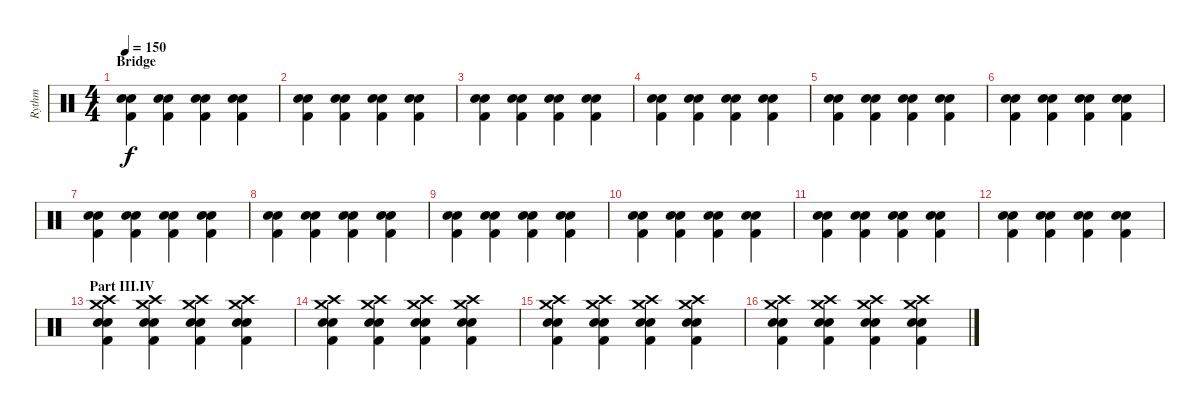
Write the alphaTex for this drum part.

\track ("Rythm" "Rythm") {instrument percussion}
\staff {score}
\articulation defaults
\ts (4 4)
\section ("" "Bridge")
\tempo 150
\clef neutral
\ks c
("Electric Snare (hit)" "Kick (hit) 2" "Snare (hit) 2").4{dy f} ("Electric Snare (hit)" "Kick (hit) 2" "Snare (hit) 2").4 ("Electric Snare (hit)" "Kick (hit) 2" "Snare (hit) 2").4 ("Electric Snare (hit)" "Kick (hit) 2" "Snare (hit) 2").4 |
("Electric Snare (hit)" "Kick (hit) 2" "Snare (hit) 2").4 ("Electric Snare (hit)" "Kick (hit) 2" "Snare (hit) 2").4 ("Electric Snare (hit)" "Kick (hit) 2" "Snare (hit) 2").4 ("Electric Snare (hit)" "Kick (hit) 2" "Snare (hit) 2").4 |
("Electric Snare (hit)" "Kick (hit) 2" "Snare (hit) 2").4 ("Electric Snare (hit)" "Kick (hit) 2" "Snare (hit) 2").4 ("Electric Snare (hit)" "Kick (hit) 2" "Snare (hit) 2").4 ("Electric Snare (hit)" "Kick (hit) 2" "Snare (hit) 2").4 |
("Electric Snare (hit)" "Kick (hit) 2" "Snare (hit) 2").4 ("Electric Snare (hit)" "Kick (hit) 2" "Snare (hit) 2").4 ("Electric Snare (hit)" "Kick (hit) 2" "Snare (hit) 2").4 ("Electric Snare (hit)" "Kick (hit) 2" "Snare (hit) 2").4 |
("Electric Snare (hit)" "Kick (hit) 2" "Snare (hit) 2").4 ("Electric Snare (hit)" "Kick (hit) 2" "Snare (hit) 2").4 ("Electric Snare (hit)" "Kick (hit) 2" "Snare (hit) 2").4 ("Electric Snare (hit)" "Kick (hit) 2" "Snare (hit) 2").4 |
("Electric Snare (hit)" "Kick (hit) 2" "Snare (hit) 2").4 ("Electric Snare (hit)" "Kick (hit) 2" "Snare (hit) 2").4 ("Electric Snare (hit)" "Kick (hit) 2" "Snare (hit) 2").4 ("Electric Snare (hit)" "Kick (hit) 2" "Snare (hit) 2").4 |
("Electric Snare (hit)" "Kick (hit) 2" "Snare (hit) 2").4 ("Electric Snare (hit)" "Kick (hit) 2" "Snare (hit) 2").4 ("Electric Snare (hit)" "Kick (hit) 2" "Snare (hit) 2").4 ("Electric Snare (hit)" "Kick (hit) 2" "Snare (hit) 2").4 |
("Electric Snare (hit)" "Kick (hit) 2" "Snare (hit) 2").4 ("Electric Snare (hit)" "Kick (hit) 2" "Snare (hit) 2").4 ("Electric Snare (hit)" "Kick (hit) 2" "Snare (hit) 2").4 ("Electric Snare (hit)" "Kick (hit) 2" "Snare (hit) 2").4 |
("Electric Snare (hit)" "Kick (hit) 2" "Snare (hit) 2").4 ("Electric Snare (hit)" "Kick (hit) 2" "Snare (hit) 2").4 ("Electric Snare (hit)" "Kick (hit) 2" "Snare (hit) 2").4 ("Electric Snare (hit)" "Kick (hit) 2" "Snare (hit) 2").4 |
("Electric Snare (hit)" "Kick (hit) 2" "Snare (hit) 2").4 ("Electric Snare (hit)" "Kick (hit) 2" "Snare (hit) 2").4 ("Electric Snare (hit)" "Kick (hit) 2" "Snare (hit) 2").4 ("Electric Snare (hit)" "Kick (hit) 2" "Snare (hit) 2").4 |
("Electric Snare (hit)" "Kick (hit) 2" "Snare (hit) 2").4 ("Electric Snare (hit)" "Kick (hit) 2" "Snare (hit) 2").4 ("Electric Snare (hit)" "Kick (hit) 2" "Snare (hit) 2").4 ("Electric Snare (hit)" "Kick (hit) 2" "Snare (hit) 2").4 |
("Electric Snare (hit)" "Kick (hit) 2" "Snare (hit) 2").4 ("Electric Snare (hit)" "Kick (hit) 2" "Snare (hit) 2").4 ("Electric Snare (hit)" "Kick (hit) 2" "Snare (hit) 2").4 ("Electric Snare (hit)" "Kick (hit) 2" "Snare (hit) 2").4 |
\section ("" "Part III.IV")
("Electric Snare (hit)" "Kick (hit) 2" "Snare (hit) 2" "Crash high (hit)" "Crash medium (hit)").4 ("Electric Snare (hit)" "Kick (hit) 2" "Snare (hit) 2" "Crash high (hit)" "Crash medium (hit)").4 ("Electric Snare (hit)" "Kick (hit) 2" "Snare (hit) 2" "Crash high (hit)" "Crash medium (hit)").4 ("Electric Snare (hit)" "Kick (hit) 2" "Snare (hit) 2" "Crash high (hit)" "Crash medium (hit)").4 |
("Electric Snare (hit)" "Kick (hit) 2" "Snare (hit) 2" "Crash high (hit)" "Crash medium (hit)").4 ("Electric Snare (hit)" "Kick (hit) 2" "Snare (hit) 2" "Crash high (hit)" "Crash medium (hit)").4 ("Electric Snare (hit)" "Kick (hit) 2" "Snare (hit) 2" "Crash high (hit)" "Crash medium (hit)").4 ("Electric Snare (hit)" "Kick (hit) 2" "Snare (hit) 2" "Crash high (hit)" "Crash medium (hit)").4 |
("Electric Snare (hit)" "Kick (hit) 2" "Snare (hit) 2" "Crash high (hit)" "Crash medium (hit)").4 ("Electric Snare (hit)" "Kick (hit) 2" "Snare (hit) 2" "Crash high (hit)" "Crash medium (hit)").4 ("Electric Snare (hit)" "Kick (hit) 2" "Snare (hit) 2" "Crash high (hit)" "Crash medium (hit)").4 ("Electric Snare (hit)" "Kick (hit) 2" "Snare (hit) 2" "Crash high (hit)" "Crash medium (hit)").4 |
("Electric Snare (hit)" "Kick (hit) 2" "Snare (hit) 2" "Crash high (hit)" "Crash medium (hit)").4 ("Electric Snare (hit)" "Kick (hit) 2" "Snare (hit) 2" "Crash high (hit)" "Crash medium (hit)").4 ("Electric Snare (hit)" "Kick (hit) 2" "Snare (hit) 2" "Crash high (hit)" "Crash medium (hit)").4 ("Electric Snare (hit)" "Kick (hit) 2" "Snare (hit) 2" "Crash high (hit)" "Crash medium (hit)").4
